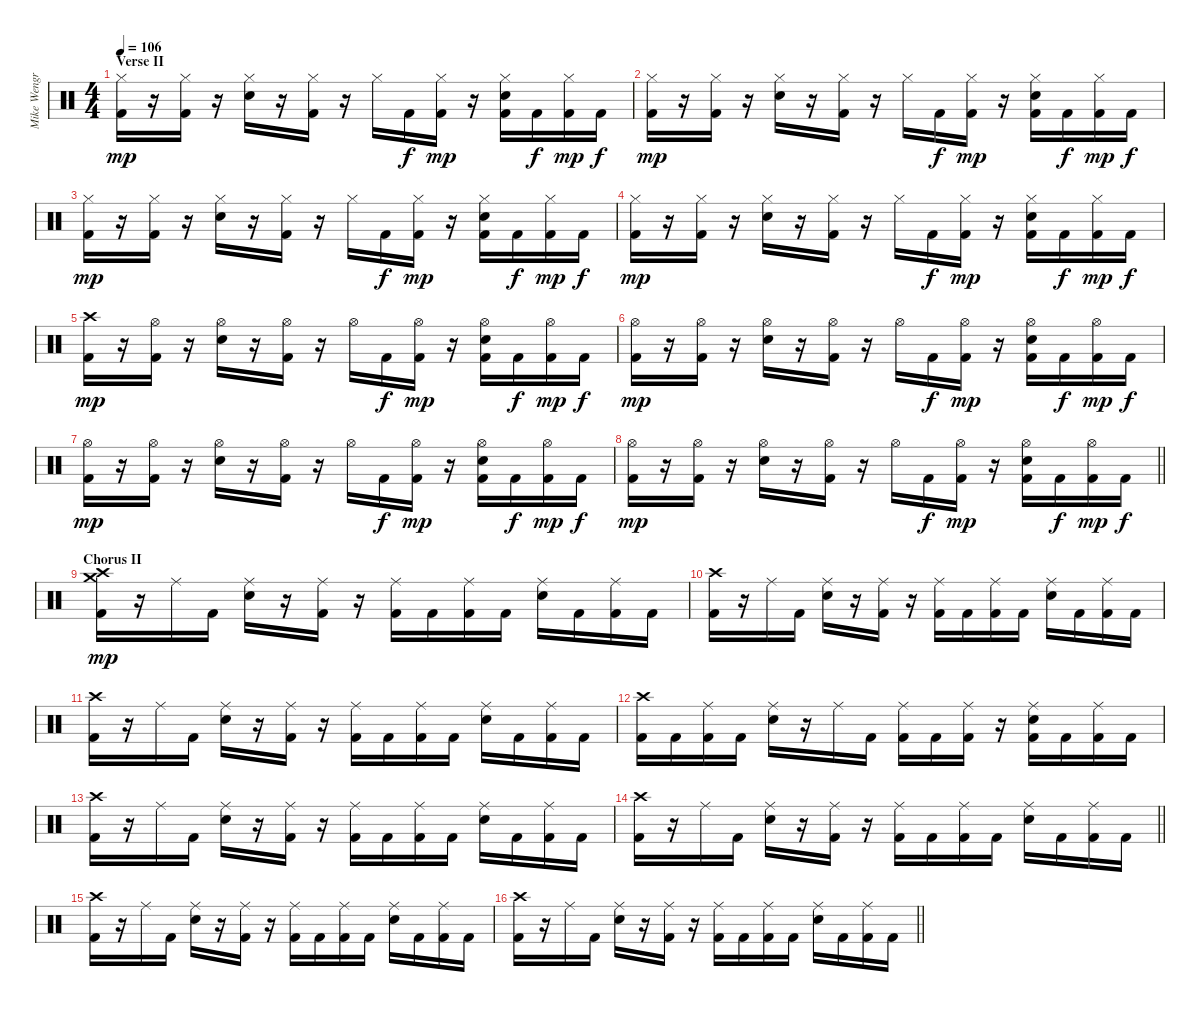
\track ("Mike Wengren" "Mike Wengr") {instrument percussion}
\staff {score}
\articulation defaults
\ts (4 4)
\section ("" "Verse II")
\tempo 106
\clef neutral
\ks c
("Hi-Hat (closed)" "Kick (hit) 2").16{dy mp} r.16 ("Hi-Hat (closed)" "Kick (hit) 2").16 r.16 ("Hi-Hat (closed)" "Snare (hit) 2").16 r.16 ("Hi-Hat (closed)" "Kick (hit) 2").16 r.16 "Hi-Hat (closed)".16 "Kick (hit) 2".16{dy f} ("Hi-Hat (closed)" "Kick (hit) 2").16{dy mp} r.16 ("Hi-Hat (closed)" "Snare (hit) 2" "Kick (hit) 2").16 "Kick (hit) 2".16{dy f} ("Hi-Hat (closed)" "Kick (hit) 2").16{dy mp} "Kick (hit) 2".16{dy f} |
("Hi-Hat (closed)" "Kick (hit) 2").16{dy mp} r.16 ("Hi-Hat (closed)" "Kick (hit) 2").16 r.16 ("Hi-Hat (closed)" "Snare (hit) 2").16 r.16 ("Hi-Hat (closed)" "Kick (hit) 2").16 r.16 "Hi-Hat (closed)".16 "Kick (hit) 2".16{dy f} ("Hi-Hat (closed)" "Kick (hit) 2").16{dy mp} r.16 ("Hi-Hat (closed)" "Snare (hit) 2" "Kick (hit) 2").16 "Kick (hit) 2".16{dy f} ("Hi-Hat (closed)" "Kick (hit) 2").16{dy mp} "Kick (hit) 2".16{dy f} |
("Hi-Hat (closed)" "Kick (hit) 2").16{dy mp} r.16 ("Hi-Hat (closed)" "Kick (hit) 2").16 r.16 ("Hi-Hat (closed)" "Snare (hit) 2").16 r.16 ("Hi-Hat (closed)" "Kick (hit) 2").16 r.16 "Hi-Hat (closed)".16 "Kick (hit) 2".16{dy f} ("Hi-Hat (closed)" "Kick (hit) 2").16{dy mp} r.16 ("Hi-Hat (closed)" "Snare (hit) 2" "Kick (hit) 2").16 "Kick (hit) 2".16{dy f} ("Hi-Hat (closed)" "Kick (hit) 2").16{dy mp} "Kick (hit) 2".16{dy f} |
("Hi-Hat (closed)" "Kick (hit) 2").16{dy mp} r.16 ("Hi-Hat (closed)" "Kick (hit) 2").16 r.16 ("Hi-Hat (closed)" "Snare (hit) 2").16 r.16 ("Hi-Hat (closed)" "Kick (hit) 2").16 r.16 "Hi-Hat (closed)".16 "Kick (hit) 2".16{dy f} ("Hi-Hat (closed)" "Kick (hit) 2").16{dy mp} r.16 ("Hi-Hat (closed)" "Snare (hit) 2" "Kick (hit) 2").16 "Kick (hit) 2".16{dy f} ("Hi-Hat (closed)" "Kick (hit) 2").16{dy mp} "Kick (hit) 2".16{dy f} |
("Crash high (hit)" "Kick (hit) 2").16{dy mp} r.16 ("Hi-Hat (open)" "Kick (hit) 2").16 r.16 ("Hi-Hat (open)" "Snare (hit) 2").16 r.16 ("Hi-Hat (open)" "Kick (hit) 2").16 r.16 "Hi-Hat (open)".16 "Kick (hit) 2".16{dy f} ("Hi-Hat (open)" "Kick (hit) 2").16{dy mp} r.16 ("Hi-Hat (open)" "Snare (hit) 2" "Kick (hit) 2").16 "Kick (hit) 2".16{dy f} ("Hi-Hat (open)" "Kick (hit) 2").16{dy mp} "Kick (hit) 2".16{dy f} |
("Hi-Hat (open)" "Kick (hit) 2").16{dy mp} r.16 ("Hi-Hat (open)" "Kick (hit) 2").16 r.16 ("Hi-Hat (open)" "Snare (hit) 2").16 r.16 ("Hi-Hat (open)" "Kick (hit) 2").16 r.16 "Hi-Hat (open)".16 "Kick (hit) 2".16{dy f} ("Hi-Hat (open)" "Kick (hit) 2").16{dy mp} r.16 ("Hi-Hat (open)" "Snare (hit) 2" "Kick (hit) 2").16 "Kick (hit) 2".16{dy f} ("Hi-Hat (open)" "Kick (hit) 2").16{dy mp} "Kick (hit) 2".16{dy f} |
("Hi-Hat (open)" "Kick (hit) 2").16{dy mp} r.16 ("Hi-Hat (open)" "Kick (hit) 2").16 r.16 ("Hi-Hat (open)" "Snare (hit) 2").16 r.16 ("Hi-Hat (open)" "Kick (hit) 2").16 r.16 "Hi-Hat (open)".16 "Kick (hit) 2".16{dy f} ("Hi-Hat (open)" "Kick (hit) 2").16{dy mp} r.16 ("Hi-Hat (open)" "Snare (hit) 2" "Kick (hit) 2").16 "Kick (hit) 2".16{dy f} ("Hi-Hat (open)" "Kick (hit) 2").16{dy mp} "Kick (hit) 2".16{dy f} |
\barLineRight lightlight
("Hi-Hat (open)" "Kick (hit) 2").16{dy mp} r.16 ("Hi-Hat (open)" "Kick (hit) 2").16 r.16 ("Hi-Hat (open)" "Snare (hit) 2").16 r.16 ("Hi-Hat (open)" "Kick (hit) 2").16 r.16 "Hi-Hat (open)".16 "Kick (hit) 2".16{dy f} ("Hi-Hat (open)" "Kick (hit) 2").16{dy mp} r.16 ("Hi-Hat (open)" "Snare (hit) 2" "Kick (hit) 2").16 "Kick (hit) 2".16{dy f} ("Hi-Hat (open)" "Kick (hit) 2").16{dy mp} "Kick (hit) 2".16{dy f} |
\section ("" "Chorus II")
("Crash high (hit)" "Crash medium (hit)" "Kick (hit) 2").16{dy mp} r.16 "Ride (middle)".16 "Kick (hit) 2".16 ("Ride (middle)" "Snare (hit) 2").16 r.16 ("Ride (middle)" "Kick (hit) 2").16 r.16 ("Ride (middle)" "Kick (hit) 2").16 "Kick (hit) 2".16 ("Ride (middle)" "Kick (hit) 2").16 "Kick (hit) 2".16 ("Ride (middle)" "Snare (hit) 2").16 "Kick (hit) 2".16 ("Ride (middle)" "Kick (hit) 2").16 "Kick (hit) 2".16 |
("Crash high (hit)" "Kick (hit) 2").16 r.16 "Ride (middle)".16 "Kick (hit) 2".16 ("Ride (middle)" "Snare (hit) 2").16 r.16 ("Ride (middle)" "Kick (hit) 2").16 r.16 ("Ride (middle)" "Kick (hit) 2").16 "Kick (hit) 2".16 ("Ride (middle)" "Kick (hit) 2").16 "Kick (hit) 2".16 ("Ride (middle)" "Snare (hit) 2").16 "Kick (hit) 2".16 ("Ride (middle)" "Kick (hit) 2").16 "Kick (hit) 2".16 |
("Crash high (hit)" "Kick (hit) 2").16 r.16 "Ride (middle)".16 "Kick (hit) 2".16 ("Ride (middle)" "Snare (hit) 2").16 r.16 ("Ride (middle)" "Kick (hit) 2").16 r.16 ("Ride (middle)" "Kick (hit) 2").16 "Kick (hit) 2".16 ("Ride (middle)" "Kick (hit) 2").16 "Kick (hit) 2".16 ("Ride (middle)" "Snare (hit) 2").16 "Kick (hit) 2".16 ("Ride (middle)" "Kick (hit) 2").16 "Kick (hit) 2".16 |
("Crash high (hit)" "Kick (hit) 2").16 "Kick (hit) 2".16 ("Ride (middle)" "Kick (hit) 2").16 "Kick (hit) 2".16 ("Ride (middle)" "Snare (hit) 2").16 r.16 "Ride (middle)".16 "Kick (hit) 2".16 ("Ride (middle)" "Kick (hit) 2").16 "Kick (hit) 2".16 ("Ride (middle)" "Kick (hit) 2").16 r.16 ("Ride (middle)" "Snare (hit) 2" "Kick (hit) 2").16 "Kick (hit) 2".16 ("Ride (middle)" "Kick (hit) 2").16 "Kick (hit) 2".16 |
("Crash high (hit)" "Kick (hit) 2").16 r.16 "Ride (middle)".16 "Kick (hit) 2".16 ("Ride (middle)" "Snare (hit) 2").16 r.16 ("Ride (middle)" "Kick (hit) 2").16 r.16 ("Ride (middle)" "Kick (hit) 2").16 "Kick (hit) 2".16 ("Ride (middle)" "Kick (hit) 2").16 "Kick (hit) 2".16 ("Ride (middle)" "Snare (hit) 2").16 "Kick (hit) 2".16 ("Ride (middle)" "Kick (hit) 2").16 "Kick (hit) 2".16 |
\barLineRight lightlight
("Crash high (hit)" "Kick (hit) 2").16 r.16 "Ride (middle)".16 "Kick (hit) 2".16 ("Ride (middle)" "Snare (hit) 2").16 r.16 ("Ride (middle)" "Kick (hit) 2").16 r.16 ("Ride (middle)" "Kick (hit) 2").16 "Kick (hit) 2".16 ("Ride (middle)" "Kick (hit) 2").16 "Kick (hit) 2".16 ("Ride (middle)" "Snare (hit) 2").16 "Kick (hit) 2".16 ("Ride (middle)" "Kick (hit) 2").16 "Kick (hit) 2".16 |
("Crash high (hit)" "Kick (hit) 2").16 r.16 "Ride (middle)".16 "Kick (hit) 2".16 ("Ride (middle)" "Snare (hit) 2").16 r.16 ("Ride (middle)" "Kick (hit) 2").16 r.16 ("Ride (middle)" "Kick (hit) 2").16 "Kick (hit) 2".16 ("Ride (middle)" "Kick (hit) 2").16 "Kick (hit) 2".16 ("Ride (middle)" "Snare (hit) 2").16 "Kick (hit) 2".16 ("Ride (middle)" "Kick (hit) 2").16 "Kick (hit) 2".16 |
\barLineRight lightlight
("Crash high (hit)" "Kick (hit) 2").16 r.16 "Ride (middle)".16 "Kick (hit) 2".16 ("Ride (middle)" "Snare (hit) 2").16 r.16 ("Ride (middle)" "Kick (hit) 2").16 r.16 ("Ride (middle)" "Kick (hit) 2").16 "Kick (hit) 2".16 ("Ride (middle)" "Kick (hit) 2").16 "Kick (hit) 2".16 ("Ride (middle)" "Snare (hit) 2").16 "Kick (hit) 2".16 ("Ride (middle)" "Kick (hit) 2").16 "Kick (hit) 2".16
